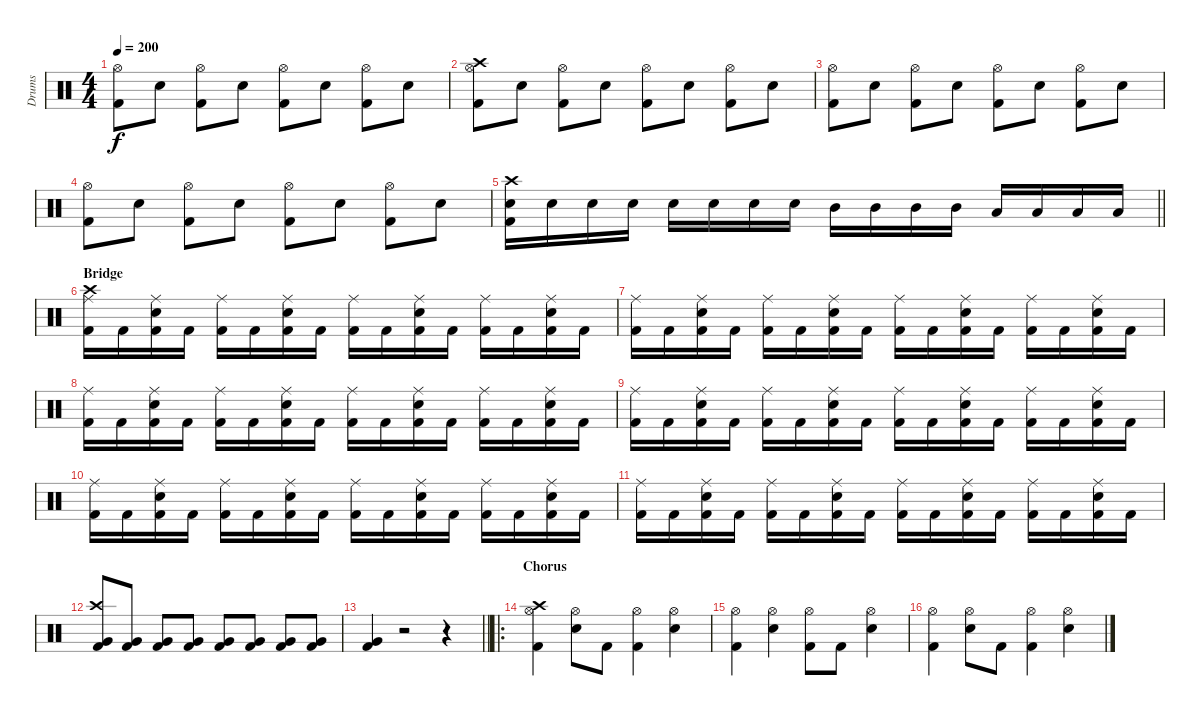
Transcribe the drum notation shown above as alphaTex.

\track ("Drums" "Drums") {instrument percussion}
\staff {score}
\articulation defaults
\ts (4 4)
\tempo 200
\clef neutral
\ks c
("Hi-Hat (open)" "Kick (hit) 2").8{dy f} "Snare (hit) 2".8 ("Hi-Hat (open)" "Kick (hit) 2").8 "Snare (hit) 2".8 ("Hi-Hat (open)" "Kick (hit) 2").8 "Snare (hit) 2".8 ("Hi-Hat (open)" "Kick (hit) 2").8 "Snare (hit) 2".8 |
("Crash high (hit)" "Hi-Hat (open)" "Kick (hit) 2").8 "Snare (hit) 2".8 ("Hi-Hat (open)" "Kick (hit) 2").8 "Snare (hit) 2".8 ("Hi-Hat (open)" "Kick (hit) 2").8 "Snare (hit) 2".8 ("Hi-Hat (open)" "Kick (hit) 2").8 "Snare (hit) 2".8 |
("Hi-Hat (open)" "Kick (hit) 2").8 "Snare (hit) 2".8 ("Hi-Hat (open)" "Kick (hit) 2").8 "Snare (hit) 2".8 ("Hi-Hat (open)" "Kick (hit) 2").8 "Snare (hit) 2".8 ("Hi-Hat (open)" "Kick (hit) 2").8 "Snare (hit) 2".8 |
("Hi-Hat (open)" "Kick (hit) 2").8 "Snare (hit) 2".8 ("Hi-Hat (open)" "Kick (hit) 2").8 "Snare (hit) 2".8 ("Hi-Hat (open)" "Kick (hit) 2").8 "Snare (hit) 2".8 ("Hi-Hat (open)" "Kick (hit) 2").8 "Snare (hit) 2".8 |
\barLineRight lightlight
("Crash high (hit)" "Snare (hit) 2" "Kick (hit) 2").16 "Snare (hit) 2".16 "Snare (hit) 2".16 "Snare (hit) 2".16 "Snare (hit) 2".16 "Snare (hit) 2".16 "Snare (hit) 2".16 "Snare (hit) 2".16 "Mid Tom (hit)".16 "Mid Tom (hit)".16 "Mid Tom (hit)".16 "Mid Tom (hit)".16 "Low Tom (hit)".16 "Low Tom (hit)".16 "Low Tom (hit)".16 "Low Tom (hit)".16 |
\section ("" "Bridge")
("Crash high (hit)" "Ride (middle)" "Kick (hit) 2").16 "Kick (hit) 2".16 ("Ride (middle)" "Snare (hit) 2" "Kick (hit) 2").16 "Kick (hit) 2".16 ("Ride (middle)" "Kick (hit) 2").16 "Kick (hit) 2".16 ("Ride (middle)" "Snare (hit) 2" "Kick (hit) 2").16 "Kick (hit) 2".16 ("Ride (middle)" "Kick (hit) 2").16 "Kick (hit) 2".16 ("Ride (middle)" "Snare (hit) 2" "Kick (hit) 2").16 "Kick (hit) 2".16 ("Ride (middle)" "Kick (hit) 2").16 "Kick (hit) 2".16 ("Ride (middle)" "Snare (hit) 2" "Kick (hit) 2").16 "Kick (hit) 2".16 |
("Ride (middle)" "Kick (hit) 2").16 "Kick (hit) 2".16 ("Ride (middle)" "Snare (hit) 2" "Kick (hit) 2").16 "Kick (hit) 2".16 ("Ride (middle)" "Kick (hit) 2").16 "Kick (hit) 2".16 ("Ride (middle)" "Snare (hit) 2" "Kick (hit) 2").16 "Kick (hit) 2".16 ("Ride (middle)" "Kick (hit) 2").16 "Kick (hit) 2".16 ("Ride (middle)" "Snare (hit) 2" "Kick (hit) 2").16 "Kick (hit) 2".16 ("Ride (middle)" "Kick (hit) 2").16 "Kick (hit) 2".16 ("Ride (middle)" "Snare (hit) 2" "Kick (hit) 2").16 "Kick (hit) 2".16 |
("Ride (middle)" "Kick (hit) 2").16 "Kick (hit) 2".16 ("Ride (middle)" "Snare (hit) 2" "Kick (hit) 2").16 "Kick (hit) 2".16 ("Ride (middle)" "Kick (hit) 2").16 "Kick (hit) 2".16 ("Ride (middle)" "Snare (hit) 2" "Kick (hit) 2").16 "Kick (hit) 2".16 ("Ride (middle)" "Kick (hit) 2").16 "Kick (hit) 2".16 ("Ride (middle)" "Snare (hit) 2" "Kick (hit) 2").16 "Kick (hit) 2".16 ("Ride (middle)" "Kick (hit) 2").16 "Kick (hit) 2".16 ("Ride (middle)" "Snare (hit) 2" "Kick (hit) 2").16 "Kick (hit) 2".16 |
("Ride (middle)" "Kick (hit) 2").16 "Kick (hit) 2".16 ("Ride (middle)" "Snare (hit) 2" "Kick (hit) 2").16 "Kick (hit) 2".16 ("Ride (middle)" "Kick (hit) 2").16 "Kick (hit) 2".16 ("Ride (middle)" "Snare (hit) 2" "Kick (hit) 2").16 "Kick (hit) 2".16 ("Ride (middle)" "Kick (hit) 2").16 "Kick (hit) 2".16 ("Ride (middle)" "Snare (hit) 2" "Kick (hit) 2").16 "Kick (hit) 2".16 ("Ride (middle)" "Kick (hit) 2").16 "Kick (hit) 2".16 ("Ride (middle)" "Snare (hit) 2" "Kick (hit) 2").16 "Kick (hit) 2".16 |
("Ride (middle)" "Kick (hit) 2").16 "Kick (hit) 2".16 ("Ride (middle)" "Snare (hit) 2" "Kick (hit) 2").16 "Kick (hit) 2".16 ("Ride (middle)" "Kick (hit) 2").16 "Kick (hit) 2".16 ("Ride (middle)" "Snare (hit) 2" "Kick (hit) 2").16 "Kick (hit) 2".16 ("Ride (middle)" "Kick (hit) 2").16 "Kick (hit) 2".16 ("Ride (middle)" "Snare (hit) 2" "Kick (hit) 2").16 "Kick (hit) 2".16 ("Ride (middle)" "Kick (hit) 2").16 "Kick (hit) 2".16 ("Ride (middle)" "Snare (hit) 2" "Kick (hit) 2").16 "Kick (hit) 2".16 |
("Ride (middle)" "Kick (hit) 2").16 "Kick (hit) 2".16 ("Ride (middle)" "Snare (hit) 2" "Kick (hit) 2").16 "Kick (hit) 2".16 ("Ride (middle)" "Kick (hit) 2").16 "Kick (hit) 2".16 ("Ride (middle)" "Snare (hit) 2" "Kick (hit) 2").16 "Kick (hit) 2".16 ("Ride (middle)" "Kick (hit) 2").16 "Kick (hit) 2".16 ("Ride (middle)" "Snare (hit) 2" "Kick (hit) 2").16 "Kick (hit) 2".16 ("Ride (middle)" "Kick (hit) 2").16 "Kick (hit) 2".16 ("Ride (middle)" "Snare (hit) 2" "Kick (hit) 2").16 "Kick (hit) 2".16 |
("Crash high (hit)" "Very Low Tom (hit)" "Kick (hit) 2").8 ("Very Low Tom (hit)" "Kick (hit) 2").8 ("Very Low Tom (hit)" "Kick (hit) 2").8 ("Very Low Tom (hit)" "Kick (hit) 2").8 ("Very Low Tom (hit)" "Kick (hit) 2").8 ("Very Low Tom (hit)" "Kick (hit) 2").8 ("Very Low Tom (hit)" "Kick (hit) 2").8 ("Very Low Tom (hit)" "Kick (hit) 2").8 |
\barLineRight lightlight
("Very Low Tom (hit)" "Kick (hit) 2").4 r.2 r.4 |
\ro
\section ("" "Chorus")
("Crash high (hit)" "Hi-Hat (open)" "Kick (hit) 2").4 ("Hi-Hat (open)" "Snare (hit) 2").8 "Kick (hit) 2".8 ("Hi-Hat (open)" "Kick (hit) 2").4 ("Hi-Hat (open)" "Snare (hit) 2").4 |
("Hi-Hat (open)" "Kick (hit) 2").4 ("Hi-Hat (open)" "Snare (hit) 2").4 ("Hi-Hat (open)" "Kick (hit) 2").8 "Kick (hit) 2".8 ("Hi-Hat (open)" "Snare (hit) 2").4 |
("Hi-Hat (open)" "Kick (hit) 2").4 ("Hi-Hat (open)" "Snare (hit) 2").8 "Kick (hit) 2".8 ("Hi-Hat (open)" "Kick (hit) 2").4 ("Hi-Hat (open)" "Snare (hit) 2").4
